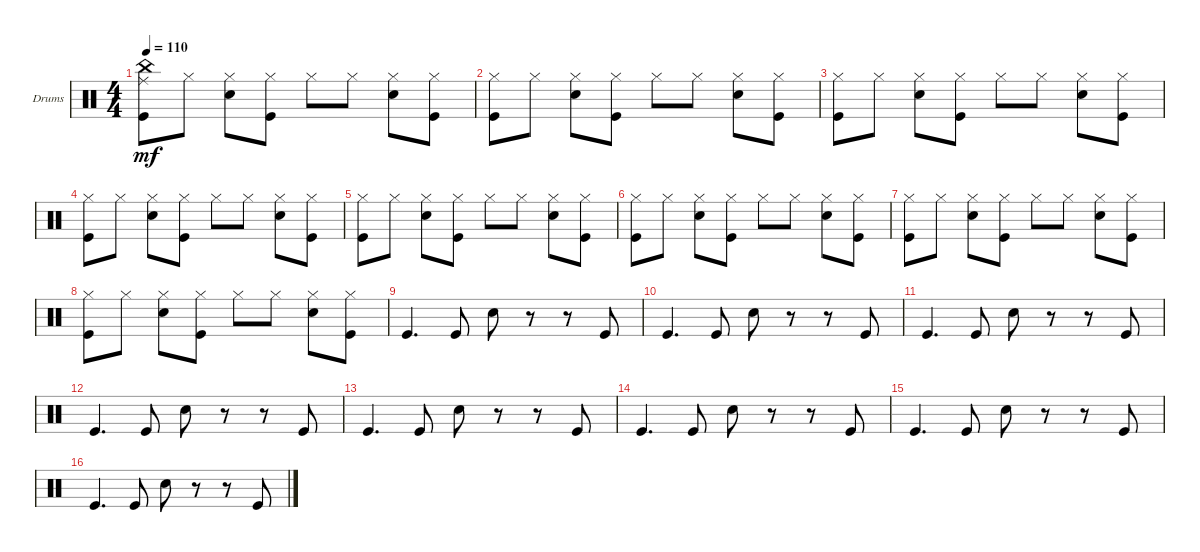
\defaultSystemsLayout 4
\bracketExtendMode groupsimilarinstruments
\firstSystemTrackNameOrientation horizontal
\otherSystemsTrackNameOrientation horizontal
\track ("Drumkit" "Drums") {instrument percussion}
\staff {score}
\articulation defaults
\ts (4 4)
\tempo 110
\clef neutral
\ks c
("Kick (hit)" "Ride (middle)" "China (hit)").8{dy mf} "Hi-Hat (closed)".8 ("Snare (hit) 2" "Hi-Hat (closed)").8 ("Kick (hit)" "Hi-Hat (closed)").8 "Hi-Hat (closed)".8 "Hi-Hat (closed)".8 ("Snare (hit) 2" "Hi-Hat (closed)").8 ("Hi-Hat (closed)" "Kick (hit)").8 |
("Kick (hit)" "Hi-Hat (closed)").8 "Hi-Hat (closed)".8 ("Snare (hit) 2" "Hi-Hat (closed)").8 ("Kick (hit)" "Hi-Hat (closed)").8 "Hi-Hat (closed)".8 "Hi-Hat (closed)".8 ("Snare (hit) 2" "Hi-Hat (closed)").8 ("Hi-Hat (closed)" "Kick (hit)").8 |
("Kick (hit)" "Hi-Hat (closed)").8 "Hi-Hat (closed)".8 ("Snare (hit) 2" "Hi-Hat (closed)").8 ("Kick (hit)" "Hi-Hat (closed)").8 "Hi-Hat (closed)".8 "Hi-Hat (closed)".8 ("Snare (hit) 2" "Hi-Hat (closed)").8 ("Hi-Hat (closed)" "Kick (hit)").8 |
("Kick (hit)" "Hi-Hat (closed)").8 "Hi-Hat (closed)".8 ("Snare (hit) 2" "Hi-Hat (closed)").8 ("Kick (hit)" "Hi-Hat (closed)").8 "Hi-Hat (closed)".8 "Hi-Hat (closed)".8 ("Snare (hit) 2" "Hi-Hat (closed)").8 ("Hi-Hat (closed)" "Kick (hit)").8 |
("Kick (hit)" "Hi-Hat (closed)").8 "Hi-Hat (closed)".8 ("Snare (hit) 2" "Hi-Hat (closed)").8 ("Kick (hit)" "Hi-Hat (closed)").8 "Hi-Hat (closed)".8 "Hi-Hat (closed)".8 ("Snare (hit) 2" "Hi-Hat (closed)").8 ("Hi-Hat (closed)" "Kick (hit)").8 |
("Kick (hit)" "Hi-Hat (closed)").8 "Hi-Hat (closed)".8 ("Snare (hit) 2" "Hi-Hat (closed)").8 ("Kick (hit)" "Hi-Hat (closed)").8 "Hi-Hat (closed)".8 "Hi-Hat (closed)".8 ("Snare (hit) 2" "Hi-Hat (closed)").8 ("Hi-Hat (closed)" "Kick (hit)").8 |
("Kick (hit)" "Hi-Hat (closed)").8 "Hi-Hat (closed)".8 ("Snare (hit) 2" "Hi-Hat (closed)").8 ("Kick (hit)" "Hi-Hat (closed)").8 "Hi-Hat (closed)".8 "Hi-Hat (closed)".8 ("Snare (hit) 2" "Hi-Hat (closed)").8 ("Hi-Hat (closed)" "Kick (hit)").8 |
("Kick (hit)" "Hi-Hat (closed)").8 "Hi-Hat (closed)".8 ("Snare (hit) 2" "Hi-Hat (closed)").8 ("Kick (hit)" "Hi-Hat (closed)").8 "Hi-Hat (closed)".8 "Hi-Hat (closed)".8 ("Snare (hit) 2" "Hi-Hat (closed)").8 ("Hi-Hat (closed)" "Kick (hit)").8 |
"Kick (hit)".4{d} "Kick (hit)".8 "Snare (hit) 2".8 r.8 r.8 "Kick (hit)".8 |
"Kick (hit)".4{d} "Kick (hit)".8 "Snare (hit) 2".8 r.8 r.8 "Kick (hit)".8 |
"Kick (hit)".4{d} "Kick (hit)".8 "Snare (hit) 2".8 r.8 r.8 "Kick (hit)".8 |
"Kick (hit)".4{d} "Kick (hit)".8 "Snare (hit) 2".8 r.8 r.8 "Kick (hit)".8 |
"Kick (hit)".4{d} "Kick (hit)".8 "Snare (hit) 2".8 r.8 r.8 "Kick (hit)".8 |
"Kick (hit)".4{d} "Kick (hit)".8 "Snare (hit) 2".8 r.8 r.8 "Kick (hit)".8 |
"Kick (hit)".4{d} "Kick (hit)".8 "Snare (hit) 2".8 r.8 r.8 "Kick (hit)".8 |
"Kick (hit)".4{d} "Kick (hit)".8 "Snare (hit) 2".8 r.8 r.8 "Kick (hit)".8
